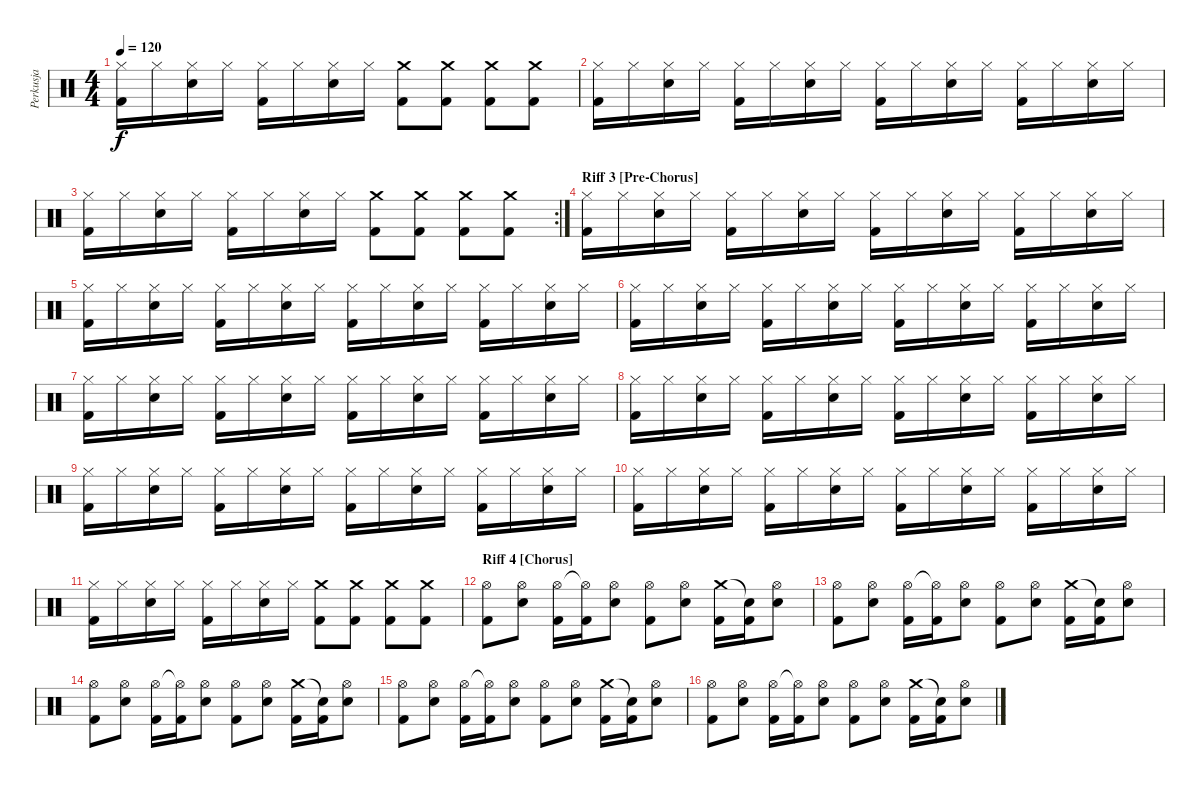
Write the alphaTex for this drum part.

\track ("Perkusja" "Perkusja") {instrument percussion}
\staff {score}
\articulation defaults
\ts (4 4)
\tempo 120
\clef neutral
\ks c
("Hi-Hat (closed)" "Kick (hit) 2").16{dy f} "Hi-Hat (closed)".16 ("Hi-Hat (closed)" "Snare (hit) 2").16 "Hi-Hat (closed)".16 ("Hi-Hat (closed)" "Kick (hit) 2").16 "Hi-Hat (closed)".16 ("Hi-Hat (closed)" "Snare (hit) 2").16 "Hi-Hat (closed)".16 ("Crash medium (hit)" "Kick (hit) 2").8 ("Crash medium (hit)" "Kick (hit) 2").8 ("Crash medium (hit)" "Kick (hit) 2").8 ("Crash medium (hit)" "Kick (hit) 2").8 |
("Hi-Hat (closed)" "Kick (hit) 2").16 "Hi-Hat (closed)".16 ("Hi-Hat (closed)" "Snare (hit) 2").16 "Hi-Hat (closed)".16 ("Hi-Hat (closed)" "Kick (hit) 2").16 "Hi-Hat (closed)".16 ("Hi-Hat (closed)" "Snare (hit) 2").16 "Hi-Hat (closed)".16 ("Hi-Hat (closed)" "Kick (hit) 2").16 "Hi-Hat (closed)".16 ("Hi-Hat (closed)" "Snare (hit) 2").16 "Hi-Hat (closed)".16 ("Hi-Hat (closed)" "Kick (hit) 2").16 "Hi-Hat (closed)".16 ("Hi-Hat (closed)" "Snare (hit) 2").16 "Hi-Hat (closed)".16 |
\rc 2
("Hi-Hat (closed)" "Kick (hit) 2").16 "Hi-Hat (closed)".16 ("Hi-Hat (closed)" "Snare (hit) 2").16 "Hi-Hat (closed)".16 ("Hi-Hat (closed)" "Kick (hit) 2").16 "Hi-Hat (closed)".16 ("Hi-Hat (closed)" "Snare (hit) 2").16 "Hi-Hat (closed)".16 ("Crash medium (hit)" "Kick (hit) 2").8 ("Crash medium (hit)" "Kick (hit) 2").8 ("Crash medium (hit)" "Kick (hit) 2").8 ("Crash medium (hit)" "Kick (hit) 2").8 |
\section ("" "Riff 3 [Pre-Chorus]")
("Hi-Hat (closed)" "Kick (hit) 2").16 "Hi-Hat (closed)".16 ("Hi-Hat (closed)" "Snare (hit) 2").16 "Hi-Hat (closed)".16 ("Hi-Hat (closed)" "Kick (hit) 2").16 "Hi-Hat (closed)".16 ("Hi-Hat (closed)" "Snare (hit) 2").16 "Hi-Hat (closed)".16 ("Hi-Hat (closed)" "Kick (hit) 2").16 "Hi-Hat (closed)".16 ("Hi-Hat (closed)" "Snare (hit) 2").16 "Hi-Hat (closed)".16 ("Hi-Hat (closed)" "Kick (hit) 2").16 "Hi-Hat (closed)".16 ("Hi-Hat (closed)" "Snare (hit) 2").16 "Hi-Hat (closed)".16 |
("Hi-Hat (closed)" "Kick (hit) 2").16 "Hi-Hat (closed)".16 ("Hi-Hat (closed)" "Snare (hit) 2").16 "Hi-Hat (closed)".16 ("Hi-Hat (closed)" "Kick (hit) 2").16 "Hi-Hat (closed)".16 ("Hi-Hat (closed)" "Snare (hit) 2").16 "Hi-Hat (closed)".16 ("Hi-Hat (closed)" "Kick (hit) 2").16 "Hi-Hat (closed)".16 ("Hi-Hat (closed)" "Snare (hit) 2").16 "Hi-Hat (closed)".16 ("Hi-Hat (closed)" "Kick (hit) 2").16 "Hi-Hat (closed)".16 ("Hi-Hat (closed)" "Snare (hit) 2").16 "Hi-Hat (closed)".16 |
("Hi-Hat (closed)" "Kick (hit) 2").16 "Hi-Hat (closed)".16 ("Hi-Hat (closed)" "Snare (hit) 2").16 "Hi-Hat (closed)".16 ("Hi-Hat (closed)" "Kick (hit) 2").16 "Hi-Hat (closed)".16 ("Hi-Hat (closed)" "Snare (hit) 2").16 "Hi-Hat (closed)".16 ("Hi-Hat (closed)" "Kick (hit) 2").16 "Hi-Hat (closed)".16 ("Hi-Hat (closed)" "Snare (hit) 2").16 "Hi-Hat (closed)".16 ("Hi-Hat (closed)" "Kick (hit) 2").16 "Hi-Hat (closed)".16 ("Hi-Hat (closed)" "Snare (hit) 2").16 "Hi-Hat (closed)".16 |
("Hi-Hat (closed)" "Kick (hit) 2").16 "Hi-Hat (closed)".16 ("Hi-Hat (closed)" "Snare (hit) 2").16 "Hi-Hat (closed)".16 ("Hi-Hat (closed)" "Kick (hit) 2").16 "Hi-Hat (closed)".16 ("Hi-Hat (closed)" "Snare (hit) 2").16 "Hi-Hat (closed)".16 ("Hi-Hat (closed)" "Kick (hit) 2").16 "Hi-Hat (closed)".16 ("Hi-Hat (closed)" "Snare (hit) 2").16 "Hi-Hat (closed)".16 ("Hi-Hat (closed)" "Kick (hit) 2").16 "Hi-Hat (closed)".16 ("Hi-Hat (closed)" "Snare (hit) 2").16 "Hi-Hat (closed)".16 |
("Hi-Hat (closed)" "Kick (hit) 2").16 "Hi-Hat (closed)".16 ("Hi-Hat (closed)" "Snare (hit) 2").16 "Hi-Hat (closed)".16 ("Hi-Hat (closed)" "Kick (hit) 2").16 "Hi-Hat (closed)".16 ("Hi-Hat (closed)" "Snare (hit) 2").16 "Hi-Hat (closed)".16 ("Hi-Hat (closed)" "Kick (hit) 2").16 "Hi-Hat (closed)".16 ("Hi-Hat (closed)" "Snare (hit) 2").16 "Hi-Hat (closed)".16 ("Hi-Hat (closed)" "Kick (hit) 2").16 "Hi-Hat (closed)".16 ("Hi-Hat (closed)" "Snare (hit) 2").16 "Hi-Hat (closed)".16 |
("Hi-Hat (closed)" "Kick (hit) 2").16 "Hi-Hat (closed)".16 ("Hi-Hat (closed)" "Snare (hit) 2").16 "Hi-Hat (closed)".16 ("Hi-Hat (closed)" "Kick (hit) 2").16 "Hi-Hat (closed)".16 ("Hi-Hat (closed)" "Snare (hit) 2").16 "Hi-Hat (closed)".16 ("Hi-Hat (closed)" "Kick (hit) 2").16 "Hi-Hat (closed)".16 ("Hi-Hat (closed)" "Snare (hit) 2").16 "Hi-Hat (closed)".16 ("Hi-Hat (closed)" "Kick (hit) 2").16 "Hi-Hat (closed)".16 ("Hi-Hat (closed)" "Snare (hit) 2").16 "Hi-Hat (closed)".16 |
("Hi-Hat (closed)" "Kick (hit) 2").16 "Hi-Hat (closed)".16 ("Hi-Hat (closed)" "Snare (hit) 2").16 "Hi-Hat (closed)".16 ("Hi-Hat (closed)" "Kick (hit) 2").16 "Hi-Hat (closed)".16 ("Hi-Hat (closed)" "Snare (hit) 2").16 "Hi-Hat (closed)".16 ("Hi-Hat (closed)" "Kick (hit) 2").16 "Hi-Hat (closed)".16 ("Hi-Hat (closed)" "Snare (hit) 2").16 "Hi-Hat (closed)".16 ("Hi-Hat (closed)" "Kick (hit) 2").16 "Hi-Hat (closed)".16 ("Hi-Hat (closed)" "Snare (hit) 2").16 "Hi-Hat (closed)".16 |
("Hi-Hat (closed)" "Kick (hit) 2").16 "Hi-Hat (closed)".16 ("Hi-Hat (closed)" "Snare (hit) 2").16 "Hi-Hat (closed)".16 ("Hi-Hat (closed)" "Kick (hit) 2").16 "Hi-Hat (closed)".16 ("Hi-Hat (closed)" "Snare (hit) 2").16 "Hi-Hat (closed)".16 ("Crash medium (hit)" "Kick (hit) 2").8 ("Crash medium (hit)" "Kick (hit) 2").8 ("Crash medium (hit)" "Kick (hit) 2").8 ("Crash medium (hit)" "Kick (hit) 2").8 |
\section ("" "Riff 4 [Chorus]")
("Kick (hit) 2" "Hi-Hat (open)").8 ("Snare (hit) 2" "Hi-Hat (open)").8 ("Kick (hit) 2" "Hi-Hat (open)").16 ("Kick (hit) 2" "Hi-Hat (open)"{t}).16 ("Snare (hit) 2" "Hi-Hat (open)").8 ("Kick (hit) 2" "Hi-Hat (open)").8 ("Snare (hit) 2" "Hi-Hat (open)").8 ("Kick (hit) 2" "Crash medium (hit)").16 ("Kick (hit) 2" "Snare (hit)"{t}).16 ("Snare (hit) 2" "Hi-Hat (open)").8 |
("Kick (hit) 2" "Hi-Hat (open)").8 ("Snare (hit) 2" "Hi-Hat (open)").8 ("Kick (hit) 2" "Hi-Hat (open)").16 ("Kick (hit) 2" "Hi-Hat (open)"{t}).16 ("Snare (hit) 2" "Hi-Hat (open)").8 ("Kick (hit) 2" "Hi-Hat (open)").8 ("Snare (hit) 2" "Hi-Hat (open)").8 ("Kick (hit) 2" "Crash medium (hit)").16 ("Kick (hit) 2" "Snare (hit)"{t}).16 ("Snare (hit) 2" "Hi-Hat (open)").8 |
("Kick (hit) 2" "Hi-Hat (open)").8 ("Snare (hit) 2" "Hi-Hat (open)").8 ("Kick (hit) 2" "Hi-Hat (open)").16 ("Kick (hit) 2" "Hi-Hat (open)"{t}).16 ("Snare (hit) 2" "Hi-Hat (open)").8 ("Kick (hit) 2" "Hi-Hat (open)").8 ("Snare (hit) 2" "Hi-Hat (open)").8 ("Kick (hit) 2" "Crash medium (hit)").16 ("Kick (hit) 2" "Snare (hit)"{t}).16 ("Snare (hit) 2" "Hi-Hat (open)").8 |
("Kick (hit) 2" "Hi-Hat (open)").8 ("Snare (hit) 2" "Hi-Hat (open)").8 ("Kick (hit) 2" "Hi-Hat (open)").16 ("Kick (hit) 2" "Hi-Hat (open)"{t}).16 ("Snare (hit) 2" "Hi-Hat (open)").8 ("Kick (hit) 2" "Hi-Hat (open)").8 ("Snare (hit) 2" "Hi-Hat (open)").8 ("Kick (hit) 2" "Crash medium (hit)").16 ("Kick (hit) 2" "Snare (hit)"{t}).16 ("Snare (hit) 2" "Hi-Hat (open)").8 |
("Kick (hit) 2" "Hi-Hat (open)").8 ("Snare (hit) 2" "Hi-Hat (open)").8 ("Kick (hit) 2" "Hi-Hat (open)").16 ("Kick (hit) 2" "Hi-Hat (open)"{t}).16 ("Snare (hit) 2" "Hi-Hat (open)").8 ("Kick (hit) 2" "Hi-Hat (open)").8 ("Snare (hit) 2" "Hi-Hat (open)").8 ("Kick (hit) 2" "Crash medium (hit)").16 ("Kick (hit) 2" "Snare (hit)"{t}).16 ("Snare (hit) 2" "Hi-Hat (open)").8
